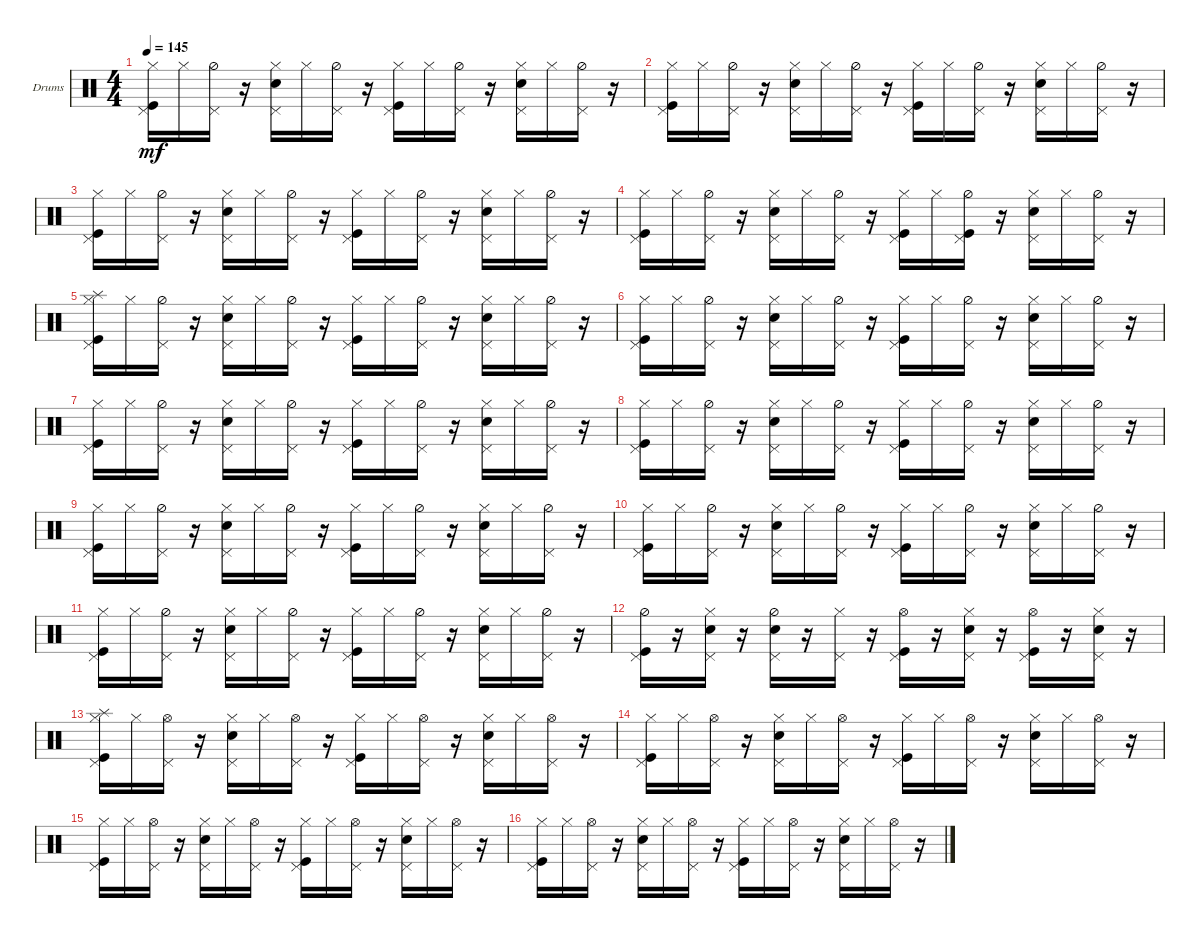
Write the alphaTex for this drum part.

\bracketExtendMode groupsimilarinstruments
\firstSystemTrackNameOrientation horizontal
\otherSystemsTrackNameOrientation horizontal
\track ("Drumkit" "Drums") {solo instrument percussion}
\staff {score}
\articulation defaults
\ts (4 4)
\tempo 145
\clef neutral
\ks c
("Kick (hit)" "Hi-Hat (closed)" "Pedal Hi-Hat (hit)").16{dy mf} "Hi-Hat (closed)".16 ("Hi-Hat (half)" "Pedal Hi-Hat (hit)").16 r.16 ("Snare (hit) 2" "Pedal Hi-Hat (hit)" "Hi-Hat (closed)").16 "Hi-Hat (closed)".16 ("Hi-Hat (half)" "Pedal Hi-Hat (hit)").16 r.16 ("Kick (hit)" "Hi-Hat (closed)" "Pedal Hi-Hat (hit)").16 "Hi-Hat (closed)".16 ("Hi-Hat (half)" "Pedal Hi-Hat (hit)").16 r.16 ("Snare (hit) 2" "Pedal Hi-Hat (hit)" "Hi-Hat (closed)").16 "Hi-Hat (closed)".16 ("Hi-Hat (half)" "Pedal Hi-Hat (hit)").16 r.16 |
("Kick (hit)" "Hi-Hat (closed)" "Pedal Hi-Hat (hit)").16 "Hi-Hat (closed)".16 ("Hi-Hat (half)" "Pedal Hi-Hat (hit)").16 r.16 ("Snare (hit) 2" "Pedal Hi-Hat (hit)" "Hi-Hat (closed)").16 "Hi-Hat (closed)".16 ("Hi-Hat (half)" "Pedal Hi-Hat (hit)").16 r.16 ("Kick (hit)" "Hi-Hat (closed)" "Pedal Hi-Hat (hit)").16 "Hi-Hat (closed)".16 ("Hi-Hat (half)" "Pedal Hi-Hat (hit)").16 r.16 ("Snare (hit) 2" "Pedal Hi-Hat (hit)" "Hi-Hat (closed)").16 "Hi-Hat (closed)".16 ("Hi-Hat (half)" "Pedal Hi-Hat (hit)").16 r.16 |
("Kick (hit)" "Hi-Hat (closed)" "Pedal Hi-Hat (hit)").16 "Hi-Hat (closed)".16 ("Hi-Hat (half)" "Pedal Hi-Hat (hit)").16 r.16 ("Snare (hit) 2" "Pedal Hi-Hat (hit)" "Hi-Hat (closed)").16 "Hi-Hat (closed)".16 ("Hi-Hat (half)" "Pedal Hi-Hat (hit)").16 r.16 ("Kick (hit)" "Hi-Hat (closed)" "Pedal Hi-Hat (hit)").16 "Hi-Hat (closed)".16 ("Hi-Hat (half)" "Pedal Hi-Hat (hit)").16 r.16 ("Snare (hit) 2" "Pedal Hi-Hat (hit)" "Hi-Hat (closed)").16 "Hi-Hat (closed)".16 ("Hi-Hat (half)" "Pedal Hi-Hat (hit)").16 r.16 |
("Kick (hit)" "Hi-Hat (closed)" "Pedal Hi-Hat (hit)").16 "Hi-Hat (closed)".16 ("Hi-Hat (half)" "Pedal Hi-Hat (hit)").16 r.16 ("Snare (hit) 2" "Pedal Hi-Hat (hit)" "Hi-Hat (closed)").16 "Hi-Hat (closed)".16 ("Hi-Hat (half)" "Pedal Hi-Hat (hit)").16 r.16 ("Kick (hit)" "Hi-Hat (closed)" "Pedal Hi-Hat (hit)").16 "Hi-Hat (closed)".16 ("Hi-Hat (half)" "Pedal Hi-Hat (hit)" "Kick (hit)").16 r.16 ("Snare (hit) 2" "Pedal Hi-Hat (hit)" "Hi-Hat (closed)").16 "Hi-Hat (closed)".16 ("Hi-Hat (half)" "Pedal Hi-Hat (hit)").16 r.16 |
("Kick (hit)" "Hi-Hat (closed)" "Pedal Hi-Hat (hit)" "Splash (hit)").16 "Hi-Hat (closed)".16 ("Hi-Hat (half)" "Pedal Hi-Hat (hit)").16 r.16 ("Snare (hit) 2" "Pedal Hi-Hat (hit)" "Hi-Hat (closed)").16 "Hi-Hat (closed)".16 ("Hi-Hat (half)" "Pedal Hi-Hat (hit)").16 r.16 ("Kick (hit)" "Hi-Hat (closed)" "Pedal Hi-Hat (hit)").16 "Hi-Hat (closed)".16 ("Hi-Hat (half)" "Pedal Hi-Hat (hit)").16 r.16 ("Snare (hit) 2" "Pedal Hi-Hat (hit)" "Hi-Hat (closed)").16 "Hi-Hat (closed)".16 ("Hi-Hat (half)" "Pedal Hi-Hat (hit)").16 r.16 |
("Kick (hit)" "Hi-Hat (closed)" "Pedal Hi-Hat (hit)").16 "Hi-Hat (closed)".16 ("Hi-Hat (half)" "Pedal Hi-Hat (hit)").16 r.16 ("Snare (hit) 2" "Pedal Hi-Hat (hit)" "Hi-Hat (closed)").16 "Hi-Hat (closed)".16 ("Hi-Hat (half)" "Pedal Hi-Hat (hit)").16 r.16 ("Kick (hit)" "Hi-Hat (closed)" "Pedal Hi-Hat (hit)").16 "Hi-Hat (closed)".16 ("Hi-Hat (half)" "Pedal Hi-Hat (hit)").16 r.16 ("Snare (hit) 2" "Pedal Hi-Hat (hit)" "Hi-Hat (closed)").16 "Hi-Hat (closed)".16 ("Hi-Hat (half)" "Pedal Hi-Hat (hit)").16 r.16 |
("Kick (hit)" "Hi-Hat (closed)" "Pedal Hi-Hat (hit)").16 "Hi-Hat (closed)".16 ("Hi-Hat (half)" "Pedal Hi-Hat (hit)").16 r.16 ("Snare (hit) 2" "Pedal Hi-Hat (hit)" "Hi-Hat (closed)").16 "Hi-Hat (closed)".16 ("Hi-Hat (half)" "Pedal Hi-Hat (hit)").16 r.16 ("Kick (hit)" "Hi-Hat (closed)" "Pedal Hi-Hat (hit)").16 "Hi-Hat (closed)".16 ("Hi-Hat (half)" "Pedal Hi-Hat (hit)").16 r.16 ("Snare (hit) 2" "Pedal Hi-Hat (hit)" "Hi-Hat (closed)").16 "Hi-Hat (closed)".16 ("Hi-Hat (half)" "Pedal Hi-Hat (hit)").16 r.16 |
("Kick (hit)" "Hi-Hat (closed)" "Pedal Hi-Hat (hit)").16 "Hi-Hat (closed)".16 ("Hi-Hat (half)" "Pedal Hi-Hat (hit)").16 r.16 ("Snare (hit) 2" "Pedal Hi-Hat (hit)" "Hi-Hat (closed)").16 "Hi-Hat (closed)".16 ("Hi-Hat (half)" "Pedal Hi-Hat (hit)").16 r.16 ("Kick (hit)" "Hi-Hat (closed)" "Pedal Hi-Hat (hit)").16 "Hi-Hat (closed)".16 ("Hi-Hat (half)" "Pedal Hi-Hat (hit)").16 r.16 ("Snare (hit) 2" "Pedal Hi-Hat (hit)" "Hi-Hat (closed)").16 "Hi-Hat (closed)".16 ("Hi-Hat (half)" "Pedal Hi-Hat (hit)").16 r.16 |
("Kick (hit)" "Hi-Hat (closed)" "Pedal Hi-Hat (hit)").16 "Hi-Hat (closed)".16 ("Hi-Hat (half)" "Pedal Hi-Hat (hit)").16 r.16 ("Snare (hit) 2" "Pedal Hi-Hat (hit)" "Hi-Hat (closed)").16 "Hi-Hat (closed)".16 ("Hi-Hat (half)" "Pedal Hi-Hat (hit)").16 r.16 ("Kick (hit)" "Hi-Hat (closed)" "Pedal Hi-Hat (hit)").16 "Hi-Hat (closed)".16 ("Hi-Hat (half)" "Pedal Hi-Hat (hit)").16 r.16 ("Snare (hit) 2" "Pedal Hi-Hat (hit)" "Hi-Hat (closed)").16 "Hi-Hat (closed)".16 ("Hi-Hat (half)" "Pedal Hi-Hat (hit)").16 r.16 |
("Kick (hit)" "Hi-Hat (closed)" "Pedal Hi-Hat (hit)").16 "Hi-Hat (closed)".16 ("Hi-Hat (half)" "Pedal Hi-Hat (hit)").16 r.16 ("Snare (hit) 2" "Pedal Hi-Hat (hit)" "Hi-Hat (closed)").16 "Hi-Hat (closed)".16 ("Hi-Hat (half)" "Pedal Hi-Hat (hit)").16 r.16 ("Kick (hit)" "Hi-Hat (closed)" "Pedal Hi-Hat (hit)").16 "Hi-Hat (closed)".16 ("Hi-Hat (half)" "Pedal Hi-Hat (hit)").16 r.16 ("Snare (hit) 2" "Pedal Hi-Hat (hit)" "Hi-Hat (closed)").16 "Hi-Hat (closed)".16 ("Hi-Hat (half)" "Pedal Hi-Hat (hit)").16 r.16 |
("Kick (hit)" "Hi-Hat (closed)" "Pedal Hi-Hat (hit)").16 "Hi-Hat (closed)".16 ("Hi-Hat (half)" "Pedal Hi-Hat (hit)").16 r.16 ("Snare (hit) 2" "Pedal Hi-Hat (hit)" "Hi-Hat (closed)").16 "Hi-Hat (closed)".16 ("Hi-Hat (half)" "Pedal Hi-Hat (hit)").16 r.16 ("Kick (hit)" "Hi-Hat (closed)" "Pedal Hi-Hat (hit)").16 "Hi-Hat (closed)".16 ("Hi-Hat (half)" "Pedal Hi-Hat (hit)").16 r.16 ("Snare (hit) 2" "Pedal Hi-Hat (hit)" "Hi-Hat (closed)").16 "Hi-Hat (closed)".16 ("Hi-Hat (half)" "Pedal Hi-Hat (hit)").16 r.16 |
("Kick (hit)" "Hi-Hat (half)" "Pedal Hi-Hat (hit)").16 r.16 ("Hi-Hat (closed)" "Snare (hit) 2" "Pedal Hi-Hat (hit)").16 r.16 ("Snare (hit) 2" "Hi-Hat (half)" "Pedal Hi-Hat (hit)").16 r.16 ("Hi-Hat (closed)" "Pedal Hi-Hat (hit)").16 r.16 ("Kick (hit)" "Hi-Hat (open)" "Pedal Hi-Hat (hit)").16 r.16 ("Hi-Hat (closed)" "Snare (hit) 2" "Pedal Hi-Hat (hit)").16 r.16 ("Hi-Hat (open)" "Kick (hit)" "Pedal Hi-Hat (hit)").16 r.16 ("Hi-Hat (closed)" "Snare (hit) 2" "Pedal Hi-Hat (hit)").16 r.16 |
("Kick (hit)" "Hi-Hat (closed)" "Pedal Hi-Hat (hit)" "Splash (hit)").16 "Hi-Hat (closed)".16 ("Hi-Hat (open)" "Pedal Hi-Hat (hit)").16 r.16 ("Snare (hit) 2" "Pedal Hi-Hat (hit)" "Hi-Hat (closed)").16 "Hi-Hat (closed)".16 ("Hi-Hat (open)" "Pedal Hi-Hat (hit)").16 r.16 ("Kick (hit)" "Hi-Hat (closed)" "Pedal Hi-Hat (hit)").16 "Hi-Hat (closed)".16 ("Hi-Hat (open)" "Pedal Hi-Hat (hit)").16 r.16 ("Snare (hit) 2" "Pedal Hi-Hat (hit)" "Hi-Hat (closed)").16 "Hi-Hat (closed)".16 ("Hi-Hat (open)" "Pedal Hi-Hat (hit)").16 r.16 |
("Kick (hit)" "Hi-Hat (closed)" "Pedal Hi-Hat (hit)").16 "Hi-Hat (closed)".16 ("Hi-Hat (open)" "Pedal Hi-Hat (hit)").16 r.16 ("Snare (hit) 2" "Pedal Hi-Hat (hit)" "Hi-Hat (closed)").16 "Hi-Hat (closed)".16 ("Hi-Hat (open)" "Pedal Hi-Hat (hit)").16 r.16 ("Kick (hit)" "Hi-Hat (closed)" "Pedal Hi-Hat (hit)").16 "Hi-Hat (closed)".16 ("Hi-Hat (open)" "Pedal Hi-Hat (hit)").16 r.16 ("Snare (hit) 2" "Pedal Hi-Hat (hit)" "Hi-Hat (closed)").16 "Hi-Hat (closed)".16 ("Hi-Hat (open)" "Pedal Hi-Hat (hit)").16 r.16 |
("Kick (hit)" "Hi-Hat (closed)" "Pedal Hi-Hat (hit)").16 "Hi-Hat (closed)".16 ("Hi-Hat (open)" "Pedal Hi-Hat (hit)").16 r.16 ("Snare (hit) 2" "Pedal Hi-Hat (hit)" "Hi-Hat (closed)").16 "Hi-Hat (closed)".16 ("Hi-Hat (open)" "Pedal Hi-Hat (hit)").16 r.16 ("Kick (hit)" "Hi-Hat (closed)" "Pedal Hi-Hat (hit)").16 "Hi-Hat (closed)".16 ("Hi-Hat (open)" "Pedal Hi-Hat (hit)").16 r.16 ("Snare (hit) 2" "Pedal Hi-Hat (hit)" "Hi-Hat (closed)").16 "Hi-Hat (closed)".16 ("Hi-Hat (open)" "Pedal Hi-Hat (hit)").16 r.16 |
("Kick (hit)" "Hi-Hat (closed)" "Pedal Hi-Hat (hit)").16 "Hi-Hat (closed)".16 ("Hi-Hat (open)" "Pedal Hi-Hat (hit)").16 r.16 ("Snare (hit) 2" "Pedal Hi-Hat (hit)" "Hi-Hat (closed)").16 "Hi-Hat (closed)".16 ("Hi-Hat (open)" "Pedal Hi-Hat (hit)").16 r.16 ("Kick (hit)" "Hi-Hat (closed)" "Pedal Hi-Hat (hit)").16 "Hi-Hat (closed)".16 ("Hi-Hat (open)" "Pedal Hi-Hat (hit)").16 r.16 ("Snare (hit) 2" "Pedal Hi-Hat (hit)" "Hi-Hat (closed)").16 "Hi-Hat (closed)".16 ("Hi-Hat (open)" "Pedal Hi-Hat (hit)").16 r.16
